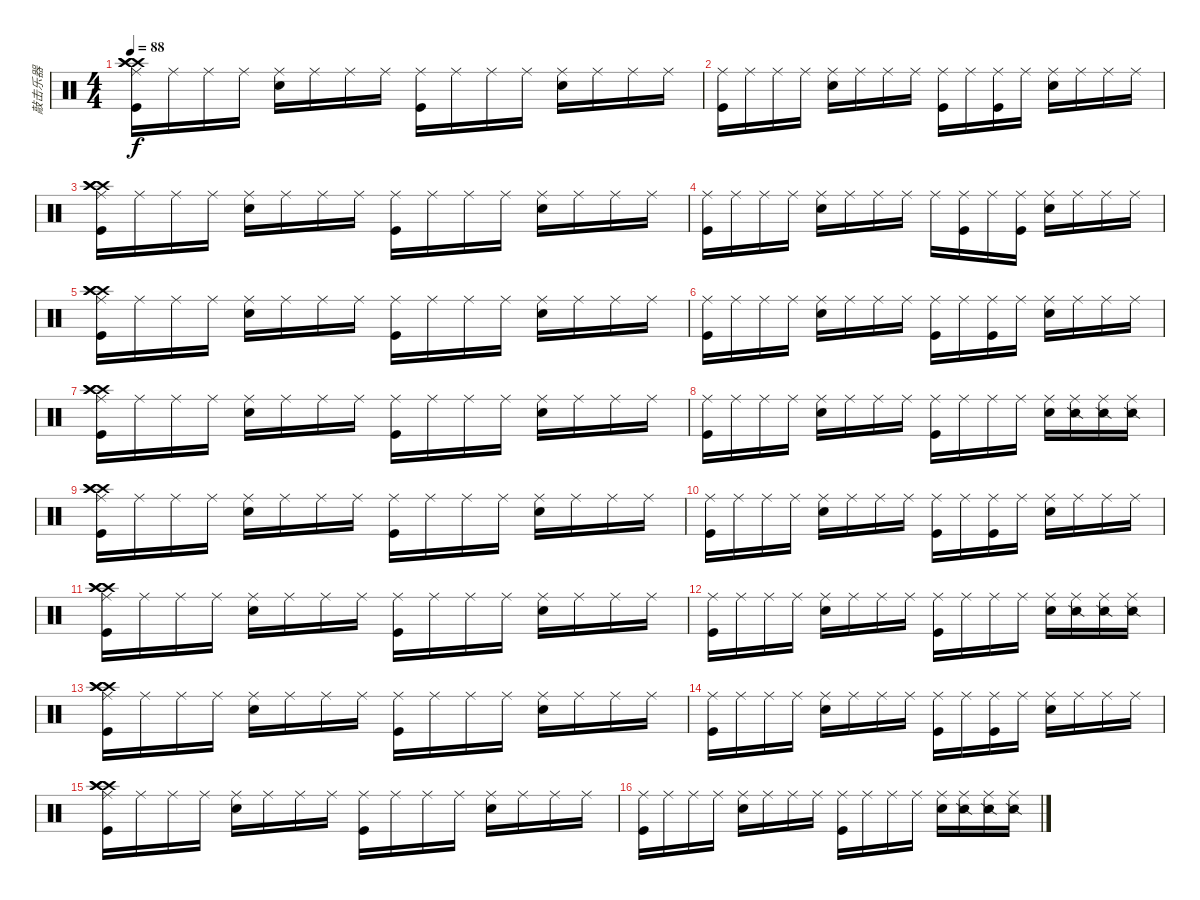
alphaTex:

\track ("敲击乐器" "敲击乐器") {instrument percussion}
\staff {score}
\articulation defaults
\ts (4 4)
\tempo 88
\clef neutral
\ks c
("Ride (middle)" "Kick (hit)" "Crash high (hit)" "Crash high (hit)" "Crash high (hit)").16{dy f} "Ride (middle)".16 "Ride (middle)".16 "Ride (middle)".16 ("Ride (middle)" "Electric Snare (hit)").16 "Ride (middle)".16 "Ride (middle)".16 "Ride (middle)".16 ("Ride (middle)" "Kick (hit)").16 "Ride (middle)".16 "Ride (middle)".16 "Ride (middle)".16 ("Ride (middle)" "Electric Snare (hit)").16 "Ride (middle)".16 "Ride (middle)".16 "Ride (middle)".16 |
("Ride (middle)" "Kick (hit)").16 "Ride (middle)".16 "Ride (middle)".16 "Ride (middle)".16 ("Ride (middle)" "Electric Snare (hit)").16 "Ride (middle)".16 "Ride (middle)".16 "Ride (middle)".16 ("Ride (middle)" "Kick (hit)").16 "Ride (middle)".16 ("Ride (middle)" "Kick (hit)").16 "Ride (middle)".16 ("Ride (middle)" "Electric Snare (hit)").16 "Ride (middle)".16 "Ride (middle)".16 "Ride (middle)".16 |
("Ride (middle)" "Kick (hit)" "Crash high (hit)" "Crash high (hit)" "Crash high (hit)").16 "Ride (middle)".16 "Ride (middle)".16 "Ride (middle)".16 ("Ride (middle)" "Electric Snare (hit)").16 "Ride (middle)".16 "Ride (middle)".16 "Ride (middle)".16 ("Ride (middle)" "Kick (hit)").16 "Ride (middle)".16 "Ride (middle)".16 "Ride (middle)".16 ("Ride (middle)" "Electric Snare (hit)").16 "Ride (middle)".16 "Ride (middle)".16 "Ride (middle)".16 |
("Ride (middle)" "Kick (hit)").16 "Ride (middle)".16 "Ride (middle)".16 "Ride (middle)".16 ("Ride (middle)" "Electric Snare (hit)").16 "Ride (middle)".16 "Ride (middle)".16 "Ride (middle)".16 "Ride (middle)".16 ("Ride (middle)" "Kick (hit)").16 "Ride (middle)".16 ("Ride (middle)" "Kick (hit)").16 ("Ride (middle)" "Electric Snare (hit)").16 "Ride (middle)".16 "Ride (middle)".16 "Ride (middle)".16 |
("Ride (middle)" "Kick (hit)" "Crash high (hit)" "Crash high (hit)" "Crash high (hit)").16 "Ride (middle)".16 "Ride (middle)".16 "Ride (middle)".16 ("Ride (middle)" "Electric Snare (hit)").16 "Ride (middle)".16 "Ride (middle)".16 "Ride (middle)".16 ("Ride (middle)" "Kick (hit)").16 "Ride (middle)".16 "Ride (middle)".16 "Ride (middle)".16 ("Ride (middle)" "Electric Snare (hit)").16 "Ride (middle)".16 "Ride (middle)".16 "Ride (middle)".16 |
("Ride (middle)" "Kick (hit)").16 "Ride (middle)".16 "Ride (middle)".16 "Ride (middle)".16 ("Ride (middle)" "Electric Snare (hit)").16 "Ride (middle)".16 "Ride (middle)".16 "Ride (middle)".16 ("Ride (middle)" "Kick (hit)").16 "Ride (middle)".16 ("Ride (middle)" "Kick (hit)").16 "Ride (middle)".16 ("Ride (middle)" "Electric Snare (hit)").16 "Ride (middle)".16 "Ride (middle)".16 "Ride (middle)".16 |
("Ride (middle)" "Kick (hit)" "Crash high (hit)" "Crash high (hit)" "Crash high (hit)").16 "Ride (middle)".16 "Ride (middle)".16 "Ride (middle)".16 ("Ride (middle)" "Electric Snare (hit)").16 "Ride (middle)".16 "Ride (middle)".16 "Ride (middle)".16 ("Ride (middle)" "Kick (hit)").16 "Ride (middle)".16 "Ride (middle)".16 "Ride (middle)".16 ("Ride (middle)" "Electric Snare (hit)").16 "Ride (middle)".16 "Ride (middle)".16 "Ride (middle)".16 |
("Ride (middle)" "Kick (hit)").16 "Ride (middle)".16 "Ride (middle)".16 "Ride (middle)".16 ("Ride (middle)" "Electric Snare (hit)").16 "Ride (middle)".16 "Ride (middle)".16 "Ride (middle)".16 ("Ride (middle)" "Kick (hit)").16 "Ride (middle)".16 "Ride (middle)".16 "Ride (middle)".16 ("Ride (middle)" "Electric Snare (hit)").16 ("Ride (middle)" "Snare (side stick) 2").16 ("Ride (middle)" "Snare (side stick) 2").16 ("Ride (middle)" "Snare (side stick) 2").16 |
("Ride (middle)" "Kick (hit)" "Crash high (hit)" "Crash high (hit)" "Crash high (hit)").16 "Ride (middle)".16 "Ride (middle)".16 "Ride (middle)".16 ("Ride (middle)" "Electric Snare (hit)").16 "Ride (middle)".16 "Ride (middle)".16 "Ride (middle)".16 ("Ride (middle)" "Kick (hit)").16 "Ride (middle)".16 "Ride (middle)".16 "Ride (middle)".16 ("Ride (middle)" "Electric Snare (hit)").16 "Ride (middle)".16 "Ride (middle)".16 "Ride (middle)".16 |
("Ride (middle)" "Kick (hit)").16 "Ride (middle)".16 "Ride (middle)".16 "Ride (middle)".16 ("Ride (middle)" "Electric Snare (hit)").16 "Ride (middle)".16 "Ride (middle)".16 "Ride (middle)".16 ("Ride (middle)" "Kick (hit)").16 "Ride (middle)".16 ("Ride (middle)" "Kick (hit)").16 "Ride (middle)".16 ("Ride (middle)" "Electric Snare (hit)").16 "Ride (middle)".16 "Ride (middle)".16 "Ride (middle)".16 |
("Ride (middle)" "Kick (hit)" "Crash high (hit)" "Crash high (hit)" "Crash high (hit)").16 "Ride (middle)".16 "Ride (middle)".16 "Ride (middle)".16 ("Ride (middle)" "Electric Snare (hit)").16 "Ride (middle)".16 "Ride (middle)".16 "Ride (middle)".16 ("Ride (middle)" "Kick (hit)").16 "Ride (middle)".16 "Ride (middle)".16 "Ride (middle)".16 ("Ride (middle)" "Electric Snare (hit)").16 "Ride (middle)".16 "Ride (middle)".16 "Ride (middle)".16 |
("Ride (middle)" "Kick (hit)").16 "Ride (middle)".16 "Ride (middle)".16 "Ride (middle)".16 ("Ride (middle)" "Electric Snare (hit)").16 "Ride (middle)".16 "Ride (middle)".16 "Ride (middle)".16 ("Ride (middle)" "Kick (hit)").16 "Ride (middle)".16 "Ride (middle)".16 "Ride (middle)".16 ("Ride (middle)" "Electric Snare (hit)").16 ("Ride (middle)" "Snare (side stick) 2").16 ("Ride (middle)" "Snare (side stick) 2").16 ("Ride (middle)" "Snare (side stick) 2").16 |
("Ride (middle)" "Kick (hit)" "Crash high (hit)" "Crash high (hit)" "Crash high (hit)").16 "Ride (middle)".16 "Ride (middle)".16 "Ride (middle)".16 ("Ride (middle)" "Electric Snare (hit)").16 "Ride (middle)".16 "Ride (middle)".16 "Ride (middle)".16 ("Ride (middle)" "Kick (hit)").16 "Ride (middle)".16 "Ride (middle)".16 "Ride (middle)".16 ("Ride (middle)" "Electric Snare (hit)").16 "Ride (middle)".16 "Ride (middle)".16 "Ride (middle)".16 |
("Ride (middle)" "Kick (hit)").16 "Ride (middle)".16 "Ride (middle)".16 "Ride (middle)".16 ("Ride (middle)" "Electric Snare (hit)").16 "Ride (middle)".16 "Ride (middle)".16 "Ride (middle)".16 ("Ride (middle)" "Kick (hit)").16 "Ride (middle)".16 ("Ride (middle)" "Kick (hit)").16 "Ride (middle)".16 ("Ride (middle)" "Electric Snare (hit)").16 "Ride (middle)".16 "Ride (middle)".16 "Ride (middle)".16 |
("Ride (middle)" "Kick (hit)" "Crash high (hit)" "Crash high (hit)" "Crash high (hit)").16 "Ride (middle)".16 "Ride (middle)".16 "Ride (middle)".16 ("Ride (middle)" "Electric Snare (hit)").16 "Ride (middle)".16 "Ride (middle)".16 "Ride (middle)".16 ("Ride (middle)" "Kick (hit)").16 "Ride (middle)".16 "Ride (middle)".16 "Ride (middle)".16 ("Ride (middle)" "Electric Snare (hit)").16 "Ride (middle)".16 "Ride (middle)".16 "Ride (middle)".16 |
("Ride (middle)" "Kick (hit)").16 "Ride (middle)".16 "Ride (middle)".16 "Ride (middle)".16 ("Ride (middle)" "Electric Snare (hit)").16 "Ride (middle)".16 "Ride (middle)".16 "Ride (middle)".16 ("Ride (middle)" "Kick (hit)").16 "Ride (middle)".16 "Ride (middle)".16 "Ride (middle)".16 ("Ride (middle)" "Electric Snare (hit)").16 ("Ride (middle)" "Snare (side stick) 2").16 ("Ride (middle)" "Snare (side stick) 2").16 ("Ride (middle)" "Snare (side stick) 2").16
